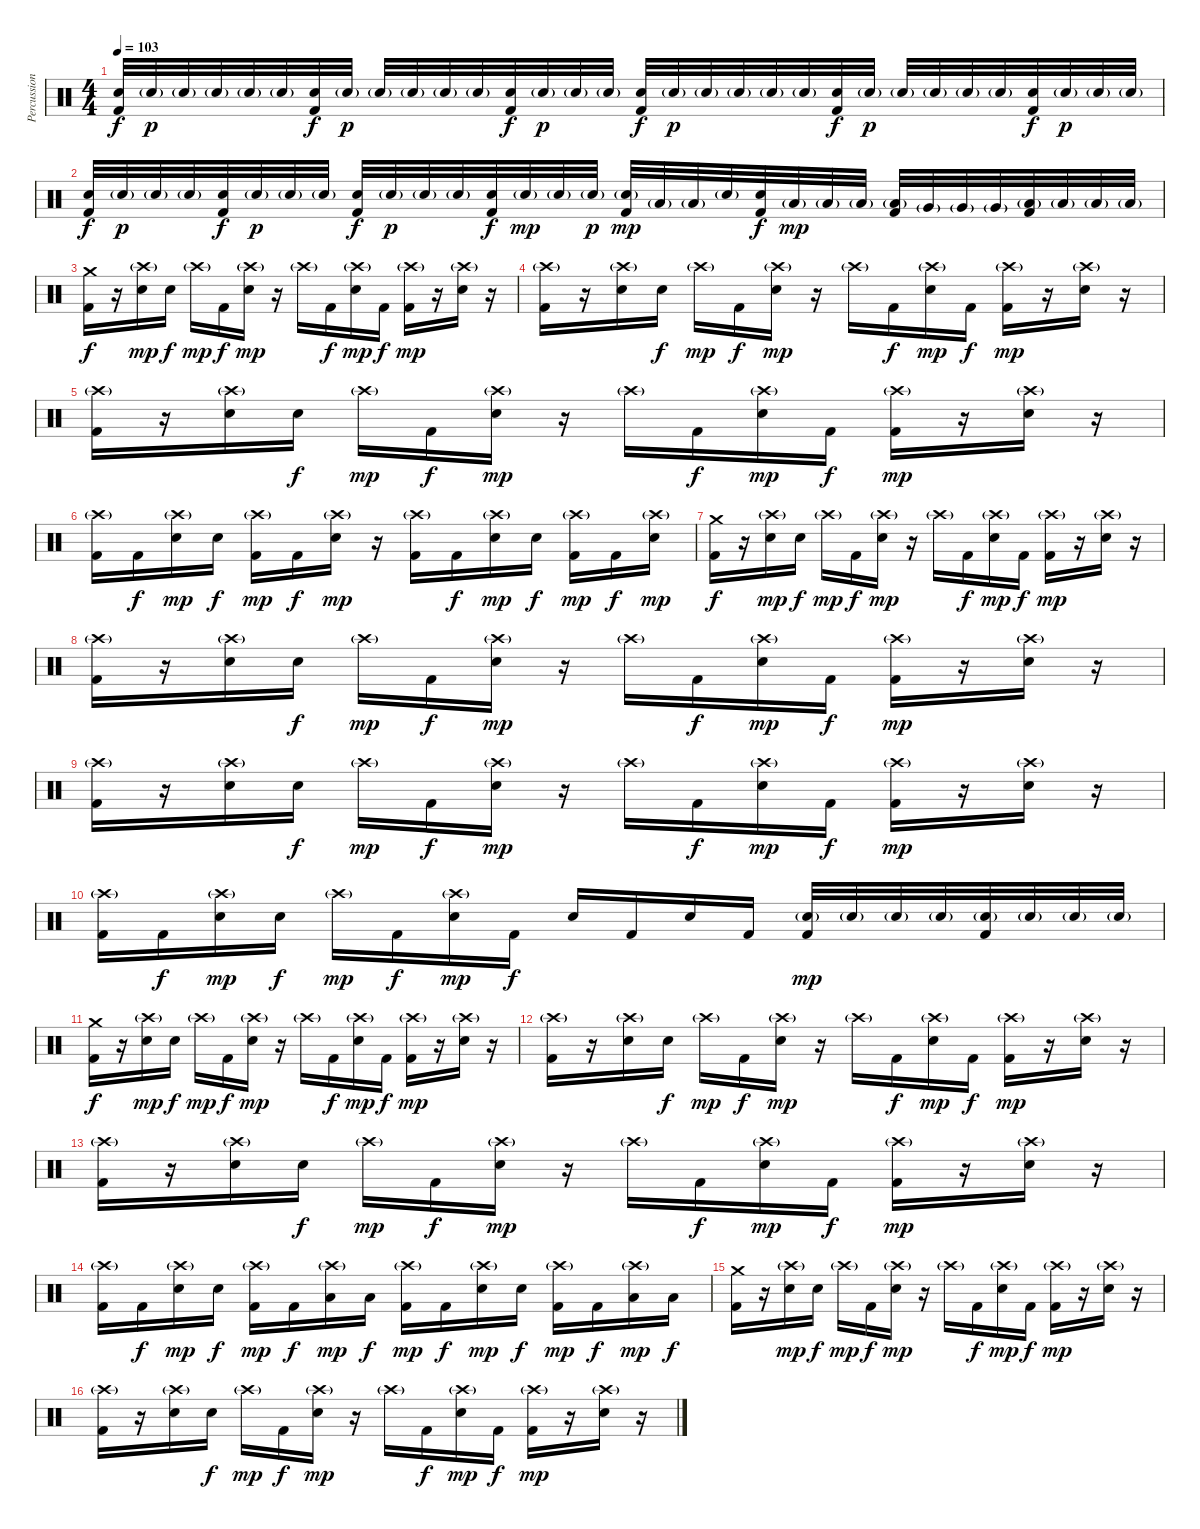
\track ("Percussion" "Percussion") {instrument percussion}
\staff {score}
\articulation defaults
\ts (4 4)
\tempo 103
\clef neutral
\ks c
("Electric Snare (hit)" "Kick (hit) 2").32{dy f} "Electric Snare (hit)"{g}.32{dy p} "Electric Snare (hit)"{g}.32 "Electric Snare (hit)"{g}.32 "Electric Snare (hit)"{g}.32 "Electric Snare (hit)"{g}.32 ("Electric Snare (hit)" "Kick (hit) 2").32{dy f} "Electric Snare (hit)"{g}.32{dy p} "Electric Snare (hit)"{g}.32 "Electric Snare (hit)"{g}.32 "Electric Snare (hit)"{g}.32 "Electric Snare (hit)"{g}.32 ("Electric Snare (hit)" "Kick (hit) 2").32{dy f} "Electric Snare (hit)"{g}.32{dy p} "Electric Snare (hit)"{g}.32 "Electric Snare (hit)"{g}.32 ("Electric Snare (hit)" "Kick (hit) 2").32{dy f} "Electric Snare (hit)"{g}.32{dy p} "Electric Snare (hit)"{g}.32 "Electric Snare (hit)"{g}.32 "Electric Snare (hit)"{g}.32 "Electric Snare (hit)"{g}.32 ("Electric Snare (hit)" "Kick (hit) 2").32{dy f} "Electric Snare (hit)"{g}.32{dy p} "Electric Snare (hit)"{g}.32 "Electric Snare (hit)"{g}.32 "Electric Snare (hit)"{g}.32 "Electric Snare (hit)"{g}.32 ("Electric Snare (hit)" "Kick (hit) 2").32{dy f} "Electric Snare (hit)"{g}.32{dy p} "Electric Snare (hit)"{g}.32 "Electric Snare (hit)"{g}.32 |
("Electric Snare (hit)" "Kick (hit) 2").32{dy f} "Electric Snare (hit)"{g}.32{dy p} "Electric Snare (hit)"{g}.32 "Electric Snare (hit)"{g}.32 ("Electric Snare (hit)" "Kick (hit) 2").32{dy f} "Electric Snare (hit)"{g}.32{dy p} "Electric Snare (hit)"{g}.32 "Electric Snare (hit)"{g}.32 ("Electric Snare (hit)" "Kick (hit) 2").32{dy f} "Electric Snare (hit)"{g}.32{dy p} "Electric Snare (hit)"{g}.32 "Electric Snare (hit)"{g}.32 ("Electric Snare (hit)" "Kick (hit) 2").32{dy f} "Electric Snare (hit)"{g}.32{dy mp} "Electric Snare (hit)"{g}.32 "Electric Snare (hit)"{g}.32{dy p} ("Electric Snare (hit)"{g} "Kick (hit) 2").32{dy mp} "Low Tom (hit)"{g}.32 "Low Tom (hit)"{g}.32 "Electric Snare (hit)"{g}.32 ("Electric Snare (hit)" "Kick (hit) 2").32{dy f} "Low Tom (hit)"{g}.32{dy mp} "Low Tom (hit)"{g}.32 "Low Tom (hit)"{g}.32 ("Low Tom (hit)"{g} "Kick (hit) 2").32 "Very Low Tom (hit)"{g}.32 "Very Low Tom (hit)"{g}.32 "Very Low Tom (hit)"{g}.32 ("Low Floor Tom (hit)"{g} "Kick (hit) 2").32 "Low Floor Tom (hit)"{g}.32 "Low Floor Tom (hit)"{g}.32 "Low Floor Tom (hit)"{g}.32 |
("Crash medium (hit)" "Kick (hit) 2").16{dy f} r.16 ("Crash high (hit)"{g} "Electric Snare (hit)").16{dy mp} "Electric Snare (hit)".16{dy f} "Crash high (hit)"{g}.16{dy mp} "Kick (hit) 2".16{dy f} ("Crash high (hit)"{g} "Electric Snare (hit)").16{dy mp} r.16 "Crash high (hit)"{g}.16 "Kick (hit) 2".16{dy f} ("Crash high (hit)"{g} "Electric Snare (hit)").16{dy mp} "Kick (hit) 2".16{dy f} ("Crash high (hit)"{g} "Kick (hit) 2").16{dy mp} r.16 ("Crash high (hit)"{g} "Electric Snare (hit)").16 r.16 |
("Crash high (hit)"{g} "Kick (hit) 2").16 r.16 ("Crash high (hit)"{g} "Electric Snare (hit)").16 "Electric Snare (hit)".16{dy f} "Crash high (hit)"{g}.16{dy mp} "Kick (hit) 2".16{dy f} ("Crash high (hit)"{g} "Electric Snare (hit)").16{dy mp} r.16 "Crash high (hit)"{g}.16 "Kick (hit) 2".16{dy f} ("Crash high (hit)"{g} "Electric Snare (hit)").16{dy mp} "Kick (hit) 2".16{dy f} ("Crash high (hit)"{g} "Kick (hit) 2").16{dy mp} r.16 ("Crash high (hit)"{g} "Electric Snare (hit)").16 r.16 |
("Crash high (hit)"{g} "Kick (hit) 2").16 r.16 ("Crash high (hit)"{g} "Electric Snare (hit)").16 "Electric Snare (hit)".16{dy f} "Crash high (hit)"{g}.16{dy mp} "Kick (hit) 2".16{dy f} ("Crash high (hit)"{g} "Electric Snare (hit)").16{dy mp} r.16 "Crash high (hit)"{g}.16 "Kick (hit) 2".16{dy f} ("Crash high (hit)"{g} "Electric Snare (hit)").16{dy mp} "Kick (hit) 2".16{dy f} ("Crash high (hit)"{g} "Kick (hit) 2").16{dy mp} r.16 ("Crash high (hit)"{g} "Electric Snare (hit)").16 r.16 |
("Crash high (hit)"{g} "Kick (hit) 2").16 "Kick (hit) 2".16{dy f} ("Crash high (hit)"{g} "Electric Snare (hit)").16{dy mp} "Electric Snare (hit)".16{dy f} ("Crash high (hit)"{g} "Kick (hit) 2").16{dy mp} "Kick (hit) 2".16{dy f} ("Crash high (hit)"{g} "Electric Snare (hit)").16{dy mp} r.16 ("Crash high (hit)"{g} "Kick (hit) 2").16 "Kick (hit) 2".16{dy f} ("Crash high (hit)"{g} "Electric Snare (hit)").16{dy mp} "Electric Snare (hit)".16{dy f} ("Crash high (hit)"{g} "Kick (hit) 2").16{dy mp} "Kick (hit) 2".16{dy f} ("Crash high (hit)"{g} "Electric Snare (hit)").16{dy mp} |
("Crash medium (hit)" "Kick (hit) 2").16{dy f} r.16 ("Crash high (hit)"{g} "Electric Snare (hit)").16{dy mp} "Electric Snare (hit)".16{dy f} "Crash high (hit)"{g}.16{dy mp} "Kick (hit) 2".16{dy f} ("Crash high (hit)"{g} "Electric Snare (hit)").16{dy mp} r.16 "Crash high (hit)"{g}.16 "Kick (hit) 2".16{dy f} ("Crash high (hit)"{g} "Electric Snare (hit)").16{dy mp} "Kick (hit) 2".16{dy f} ("Crash high (hit)"{g} "Kick (hit) 2").16{dy mp} r.16 ("Crash high (hit)"{g} "Electric Snare (hit)").16 r.16 |
("Crash high (hit)"{g} "Kick (hit) 2").16 r.16 ("Crash high (hit)"{g} "Electric Snare (hit)").16 "Electric Snare (hit)".16{dy f} "Crash high (hit)"{g}.16{dy mp} "Kick (hit) 2".16{dy f} ("Crash high (hit)"{g} "Electric Snare (hit)").16{dy mp} r.16 "Crash high (hit)"{g}.16 "Kick (hit) 2".16{dy f} ("Crash high (hit)"{g} "Electric Snare (hit)").16{dy mp} "Kick (hit) 2".16{dy f} ("Crash high (hit)"{g} "Kick (hit) 2").16{dy mp} r.16 ("Crash high (hit)"{g} "Electric Snare (hit)").16 r.16 |
("Crash high (hit)"{g} "Kick (hit) 2").16 r.16 ("Crash high (hit)"{g} "Electric Snare (hit)").16 "Electric Snare (hit)".16{dy f} "Crash high (hit)"{g}.16{dy mp} "Kick (hit) 2".16{dy f} ("Crash high (hit)"{g} "Electric Snare (hit)").16{dy mp} r.16 "Crash high (hit)"{g}.16 "Kick (hit) 2".16{dy f} ("Crash high (hit)"{g} "Electric Snare (hit)").16{dy mp} "Kick (hit) 2".16{dy f} ("Crash high (hit)"{g} "Kick (hit) 2").16{dy mp} r.16 ("Crash high (hit)"{g} "Electric Snare (hit)").16 r.16 |
("Crash high (hit)"{g} "Kick (hit) 2").16 "Kick (hit) 2".16{dy f} ("Crash high (hit)"{g} "Electric Snare (hit)").16{dy mp} "Electric Snare (hit)".16{dy f} "Crash high (hit)"{g}.16{dy mp} "Kick (hit) 2".16{dy f} ("Crash high (hit)"{g} "Electric Snare (hit)").16{dy mp} "Kick (hit) 2".16{dy f} "Electric Snare (hit)".16 "Kick (hit) 2".16 "Electric Snare (hit)".16 "Kick (hit) 2".16 ("Electric Snare (hit)"{g} "Kick (hit) 2").32{dy mp} "Electric Snare (hit)"{g}.32 "Electric Snare (hit)"{g}.32 "Electric Snare (hit)"{g}.32 ("Electric Snare (hit)"{g} "Kick (hit) 2").32 "Electric Snare (hit)"{g}.32 "Electric Snare (hit)"{g}.32 "Electric Snare (hit)"{g}.32 |
("Crash medium (hit)" "Kick (hit) 2").16{dy f} r.16 ("Crash high (hit)"{g} "Electric Snare (hit)").16{dy mp} "Electric Snare (hit)".16{dy f} "Crash high (hit)"{g}.16{dy mp} "Kick (hit) 2".16{dy f} ("Crash high (hit)"{g} "Electric Snare (hit)").16{dy mp} r.16 "Crash high (hit)"{g}.16 "Kick (hit) 2".16{dy f} ("Crash high (hit)"{g} "Electric Snare (hit)").16{dy mp} "Kick (hit) 2".16{dy f} ("Crash high (hit)"{g} "Kick (hit) 2").16{dy mp} r.16 ("Crash high (hit)"{g} "Electric Snare (hit)").16 r.16 |
("Crash high (hit)"{g} "Kick (hit) 2").16 r.16 ("Crash high (hit)"{g} "Electric Snare (hit)").16 "Electric Snare (hit)".16{dy f} "Crash high (hit)"{g}.16{dy mp} "Kick (hit) 2".16{dy f} ("Crash high (hit)"{g} "Electric Snare (hit)").16{dy mp} r.16 "Crash high (hit)"{g}.16 "Kick (hit) 2".16{dy f} ("Crash high (hit)"{g} "Electric Snare (hit)").16{dy mp} "Kick (hit) 2".16{dy f} ("Crash high (hit)"{g} "Kick (hit) 2").16{dy mp} r.16 ("Crash high (hit)"{g} "Electric Snare (hit)").16 r.16 |
("Crash high (hit)"{g} "Kick (hit) 2").16 r.16 ("Crash high (hit)"{g} "Electric Snare (hit)").16 "Electric Snare (hit)".16{dy f} "Crash high (hit)"{g}.16{dy mp} "Kick (hit) 2".16{dy f} ("Crash high (hit)"{g} "Electric Snare (hit)").16{dy mp} r.16 "Crash high (hit)"{g}.16 "Kick (hit) 2".16{dy f} ("Crash high (hit)"{g} "Electric Snare (hit)").16{dy mp} "Kick (hit) 2".16{dy f} ("Crash high (hit)"{g} "Kick (hit) 2").16{dy mp} r.16 ("Crash high (hit)"{g} "Electric Snare (hit)").16 r.16 |
("Crash high (hit)"{g} "Kick (hit) 2").16 "Kick (hit) 2".16{dy f} ("Crash high (hit)"{g} "Electric Snare (hit)").16{dy mp} "Electric Snare (hit)".16{dy f} ("Crash high (hit)"{g} "Kick (hit) 2").16{dy mp} "Kick (hit) 2".16{dy f} ("Crash high (hit)"{g} "Low Tom (hit)").16{dy mp} "Low Tom (hit)".16{dy f} ("Crash high (hit)"{g} "Kick (hit) 2").16{dy mp} "Kick (hit) 2".16{dy f} ("Crash high (hit)"{g} "Electric Snare (hit)").16{dy mp} "Electric Snare (hit)".16{dy f} ("Crash high (hit)"{g} "Kick (hit) 2").16{dy mp} "Kick (hit) 2".16{dy f} ("Crash high (hit)"{g} "Low Tom (hit)").16{dy mp} "Low Tom (hit)".16{dy f} |
("Crash medium (hit)" "Kick (hit) 2").16 r.16 ("Crash high (hit)"{g} "Electric Snare (hit)").16{dy mp} "Electric Snare (hit)".16{dy f} "Crash high (hit)"{g}.16{dy mp} "Kick (hit) 2".16{dy f} ("Crash high (hit)"{g} "Electric Snare (hit)").16{dy mp} r.16 "Crash high (hit)"{g}.16 "Kick (hit) 2".16{dy f} ("Crash high (hit)"{g} "Electric Snare (hit)").16{dy mp} "Kick (hit) 2".16{dy f} ("Crash high (hit)"{g} "Kick (hit) 2").16{dy mp} r.16 ("Crash high (hit)"{g} "Electric Snare (hit)").16 r.16 |
("Crash high (hit)"{g} "Kick (hit) 2").16 r.16 ("Crash high (hit)"{g} "Electric Snare (hit)").16 "Electric Snare (hit)".16{dy f} "Crash high (hit)"{g}.16{dy mp} "Kick (hit) 2".16{dy f} ("Crash high (hit)"{g} "Electric Snare (hit)").16{dy mp} r.16 "Crash high (hit)"{g}.16 "Kick (hit) 2".16{dy f} ("Crash high (hit)"{g} "Electric Snare (hit)").16{dy mp} "Kick (hit) 2".16{dy f} ("Crash high (hit)"{g} "Kick (hit) 2").16{dy mp} r.16 ("Crash high (hit)"{g} "Electric Snare (hit)").16 r.16
